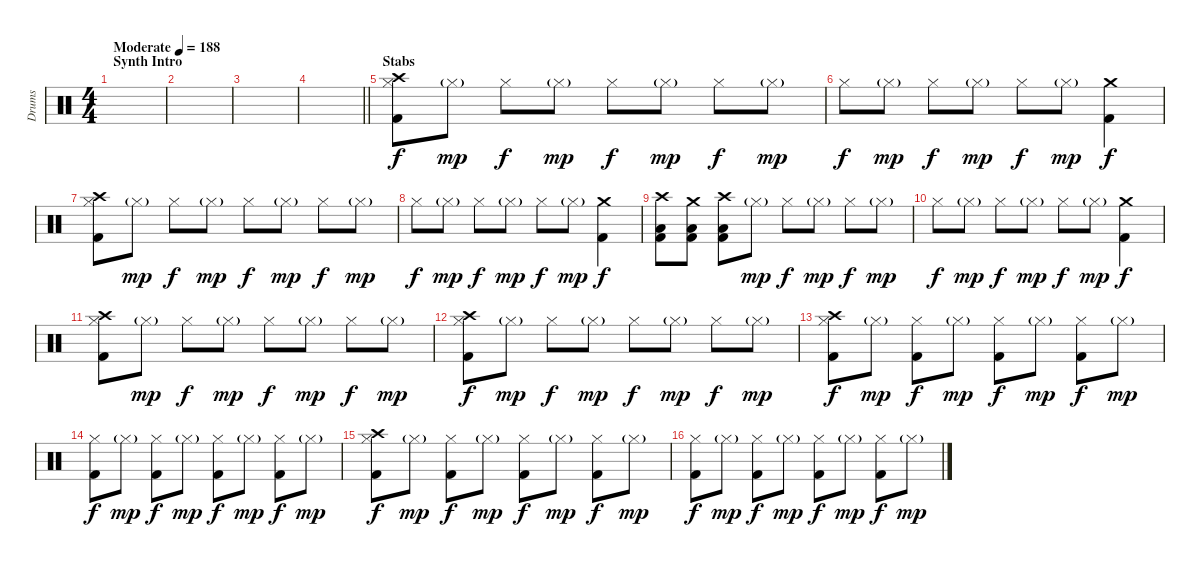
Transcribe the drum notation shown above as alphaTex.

\track ("Drums" "Drums") {instrument percussion}
\staff {score}
\articulation defaults
\ts (4 4)
\section ("" "Synth Intro")
\tempo (188 "Moderate")
\clef neutral
\ks c
|
|
|
\barLineRight lightlight
|
\section ("" "Stabs")
("Crash high (hit)" "Hi-Hat (closed)" "Kick (hit) 2").8 "Hi-Hat (closed)"{g}.8{dy mp} "Hi-Hat (closed)".8{dy f} "Hi-Hat (closed)"{g}.8{dy mp} "Hi-Hat (closed)".8{dy f} "Hi-Hat (closed)"{g}.8{dy mp} "Hi-Hat (closed)".8{dy f} "Hi-Hat (closed)"{g}.8{dy mp} |
"Hi-Hat (closed)".8{dy f} "Hi-Hat (closed)"{g}.8{dy mp} "Hi-Hat (closed)".8{dy f} "Hi-Hat (closed)"{g}.8{dy mp} "Hi-Hat (closed)".8{dy f} "Hi-Hat (closed)"{g}.8{dy mp} ("Crash medium (hit)" "Kick (hit) 2").4{dy f} |
("Crash high (hit)" "Hi-Hat (closed)" "Kick (hit) 2").8 "Hi-Hat (closed)"{g}.8{dy mp} "Hi-Hat (closed)".8{dy f} "Hi-Hat (closed)"{g}.8{dy mp} "Hi-Hat (closed)".8{dy f} "Hi-Hat (closed)"{g}.8{dy mp} "Hi-Hat (closed)".8{dy f} "Hi-Hat (closed)"{g}.8{dy mp} |
"Hi-Hat (closed)".8{dy f} "Hi-Hat (closed)"{g}.8{dy mp} "Hi-Hat (closed)".8{dy f} "Hi-Hat (closed)"{g}.8{dy mp} "Hi-Hat (closed)".8{dy f} "Hi-Hat (closed)"{g}.8{dy mp} ("Crash medium (hit)" "Kick (hit) 2").4{dy f} |
("Crash high (hit)" "Low Floor Tom (hit)" "Kick (hit) 2").8 ("Crash medium (hit)" "Low Floor Tom (hit)" "Kick (hit) 2").8 ("Crash high (hit)" "Low Floor Tom (hit)" "Kick (hit) 2").8 "Hi-Hat (closed)"{g}.8{dy mp} "Hi-Hat (closed)".8{dy f} "Hi-Hat (closed)"{g}.8{dy mp} "Hi-Hat (closed)".8{dy f} "Hi-Hat (closed)"{g}.8{dy mp} |
"Hi-Hat (closed)".8{dy f} "Hi-Hat (closed)"{g}.8{dy mp} "Hi-Hat (closed)".8{dy f} "Hi-Hat (closed)"{g}.8{dy mp} "Hi-Hat (closed)".8{dy f} "Hi-Hat (closed)"{g}.8{dy mp} ("Crash medium (hit)" "Kick (hit) 2").4{dy f} |
("Crash high (hit)" "Hi-Hat (closed)" "Kick (hit) 2").8 "Hi-Hat (closed)"{g}.8{dy mp} "Hi-Hat (closed)".8{dy f} "Hi-Hat (closed)"{g}.8{dy mp} "Hi-Hat (closed)".8{dy f} "Hi-Hat (closed)"{g}.8{dy mp} "Hi-Hat (closed)".8{dy f} "Hi-Hat (closed)"{g}.8{dy mp} |
("Crash high (hit)" "Hi-Hat (closed)" "Kick (hit) 2").8{dy f} "Hi-Hat (closed)"{g}.8{dy mp} "Hi-Hat (closed)".8{dy f} "Hi-Hat (closed)"{g}.8{dy mp} "Hi-Hat (closed)".8{dy f} "Hi-Hat (closed)"{g}.8{dy mp} "Hi-Hat (closed)".8{dy f} "Hi-Hat (closed)"{g}.8{dy mp} |
("Crash high (hit)" "Hi-Hat (closed)" "Kick (hit) 2").8{dy f} "Hi-Hat (closed)"{g}.8{dy mp} ("Hi-Hat (closed)" "Kick (hit) 2").8{dy f} "Hi-Hat (closed)"{g}.8{dy mp} ("Hi-Hat (closed)" "Kick (hit) 2").8{dy f} "Hi-Hat (closed)"{g}.8{dy mp} ("Hi-Hat (closed)" "Kick (hit) 2").8{dy f} "Hi-Hat (closed)"{g}.8{dy mp} |
("Hi-Hat (closed)" "Kick (hit) 2").8{dy f} "Hi-Hat (closed)"{g}.8{dy mp} ("Hi-Hat (closed)" "Kick (hit) 2").8{dy f} "Hi-Hat (closed)"{g}.8{dy mp} ("Hi-Hat (closed)" "Kick (hit) 2").8{dy f} "Hi-Hat (closed)"{g}.8{dy mp} ("Hi-Hat (closed)" "Kick (hit) 2").8{dy f} "Hi-Hat (closed)"{g}.8{dy mp} |
("Crash high (hit)" "Hi-Hat (closed)" "Kick (hit) 2").8{dy f} "Hi-Hat (closed)"{g}.8{dy mp} ("Hi-Hat (closed)" "Kick (hit) 2").8{dy f} "Hi-Hat (closed)"{g}.8{dy mp} ("Hi-Hat (closed)" "Kick (hit) 2").8{dy f} "Hi-Hat (closed)"{g}.8{dy mp} ("Hi-Hat (closed)" "Kick (hit) 2").8{dy f} "Hi-Hat (closed)"{g}.8{dy mp} |
("Hi-Hat (closed)" "Kick (hit) 2").8{dy f} "Hi-Hat (closed)"{g}.8{dy mp} ("Hi-Hat (closed)" "Kick (hit) 2").8{dy f} "Hi-Hat (closed)"{g}.8{dy mp} ("Hi-Hat (closed)" "Kick (hit) 2").8{dy f} "Hi-Hat (closed)"{g}.8{dy mp} ("Hi-Hat (closed)" "Kick (hit) 2").8{dy f} "Hi-Hat (closed)"{g}.8{dy mp}
